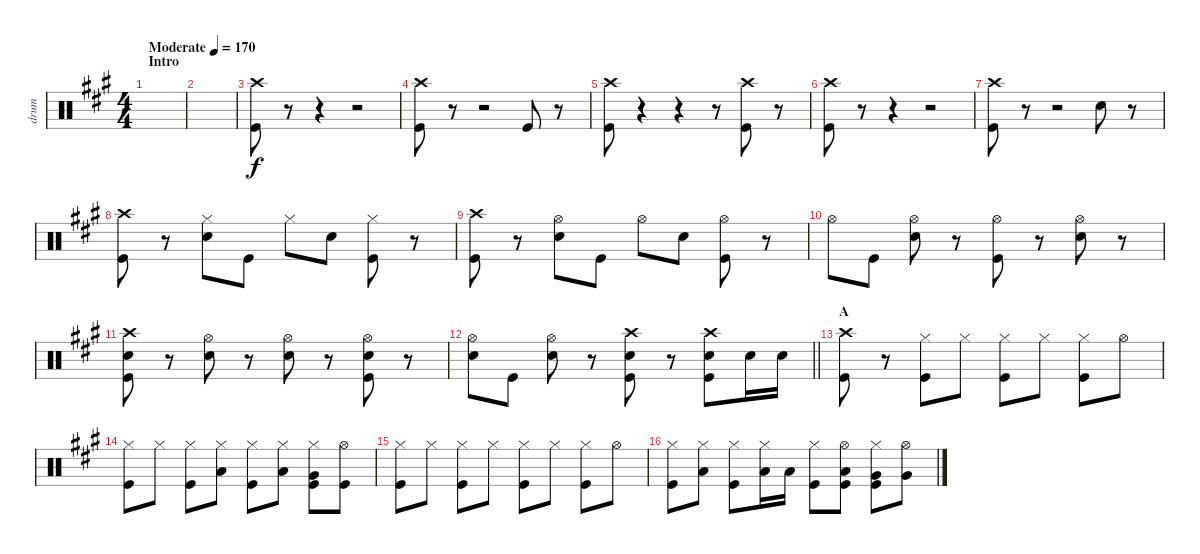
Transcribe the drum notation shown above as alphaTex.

\track ("drum" "drum") {instrument percussion}
\staff {score}
\articulation defaults
\ts (4 4)
\section ("" "Intro")
\tempo (170 "Moderate")
\clef neutral
\ks a
|
|
("Crash high (hit)" "Kick (hit)").8 r.8 r.4 r.2 |
("Crash high (hit)" "Kick (hit)").8 r.8 r.2 "Kick (hit)".8 r.8 |
("Crash high (hit)" "Kick (hit)").8 r.4 r.4 r.8 ("Crash high (hit)" "Kick (hit)").8 r.8 |
("Crash high (hit)" "Kick (hit)").8 r.8 r.4 r.2 |
("Crash high (hit)" "Kick (hit)").8 r.8 r.2 "Snare (hit) 2".8 r.8 |
("Crash high (hit)" "Kick (hit)").8 r.8 ("Hi-Hat (closed)" "Snare (hit) 2").8 "Kick (hit)".8 "Hi-Hat (closed)".8 "Snare (hit) 2".8 ("Hi-Hat (closed)" "Kick (hit)").8 r.8 |
("Crash high (hit)" "Kick (hit)").8 r.8 ("Hi-Hat (open)" "Snare (hit) 2").8 "Kick (hit)".8 "Hi-Hat (open)".8 "Snare (hit) 2".8 ("Hi-Hat (open)" "Kick (hit)").8 r.8 |
"Hi-Hat (open)".8 "Kick (hit)".8 ("Hi-Hat (open)" "Snare (hit) 2").8 r.8 ("Hi-Hat (open)" "Kick (hit)").8 r.8 ("Hi-Hat (open)" "Snare (hit) 2").8 r.8 |
("Crash high (hit)" "Snare (hit) 2" "Kick (hit)").8 r.8 ("Hi-Hat (open)" "Snare (hit) 2").8 r.8 ("Hi-Hat (open)" "Snare (hit) 2").8 r.8 ("Hi-Hat (open)" "Snare (hit) 2" "Kick (hit)").8 r.8 |
\barLineRight lightlight
("Hi-Hat (open)" "Snare (hit) 2").8 "Kick (hit)".8 ("Hi-Hat (open)" "Snare (hit) 2").8 r.8 ("Crash high (hit)" "Snare (hit) 2" "Kick (hit)").8 r.8 ("Crash high (hit)" "Snare (hit) 2" "Kick (hit)").8 "Snare (hit) 2".16 "Snare (hit) 2".16 |
\section ("" "A")
("Crash high (hit)" "Kick (hit)").8 r.8 ("Hi-Hat (closed)" "Kick (hit)").8 "Hi-Hat (closed)".8 ("Hi-Hat (closed)" "Kick (hit)").8 "Hi-Hat (closed)".8 ("Hi-Hat (closed)" "Kick (hit)").8 "Hi-Hat (open)".8 |
("Hi-Hat (closed)" "Kick (hit)").8 "Hi-Hat (closed)".8 ("Hi-Hat (closed)" "Kick (hit)").8 ("Hi-Hat (closed)" "Low Tom (hit)").8 ("Hi-Hat (closed)" "Kick (hit)").8 ("Hi-Hat (closed)" "Low Tom (hit)").8 ("Hi-Hat (closed)" "Very Low Tom (hit)" "Kick (hit)").8 ("Hi-Hat (open)" "Kick (hit)").8 |
("Hi-Hat (closed)" "Kick (hit)").8 "Hi-Hat (closed)".8 ("Hi-Hat (closed)" "Kick (hit)").8 "Hi-Hat (closed)".8 ("Hi-Hat (closed)" "Kick (hit)").8 "Hi-Hat (closed)".8 ("Hi-Hat (closed)" "Kick (hit)").8 "Hi-Hat (open)".8 |
("Hi-Hat (closed)" "Kick (hit)").8 ("Hi-Hat (closed)" "Low Tom (hit)").8 ("Hi-Hat (closed)" "Kick (hit)").8 ("Hi-Hat (closed)" "Low Tom (hit)").16 "Low Tom (hit)".16 ("Hi-Hat (closed)" "Kick (hit)").8 ("Hi-Hat (open)" "Low Tom (hit)" "Kick (hit)").8 ("Hi-Hat (closed)" "Very Low Tom (hit)" "Kick (hit)").8 ("Hi-Hat (open)" "Very Low Tom (hit)").8
